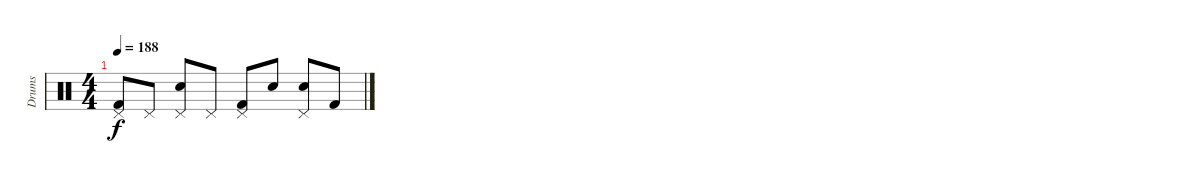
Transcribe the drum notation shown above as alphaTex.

\track ("Drums" "Drums") {instrument percussion}
\staff {score}
\articulation defaults
\ts (4 4)
\tempo 188
\clef neutral
\ks c
("Kick (hit) 2" "Pedal Hi-Hat (hit)").8{dy f volume 0} "Pedal Hi-Hat (hit)".8 ("Snare (hit) 2" "Pedal Hi-Hat (hit)").8 "Pedal Hi-Hat (hit)".8 ("Kick (hit) 2" "Pedal Hi-Hat (hit)").8 "Snare (hit) 2".8 ("Snare (hit) 2" "Pedal Hi-Hat (hit)").8 "Kick (hit) 2".8
